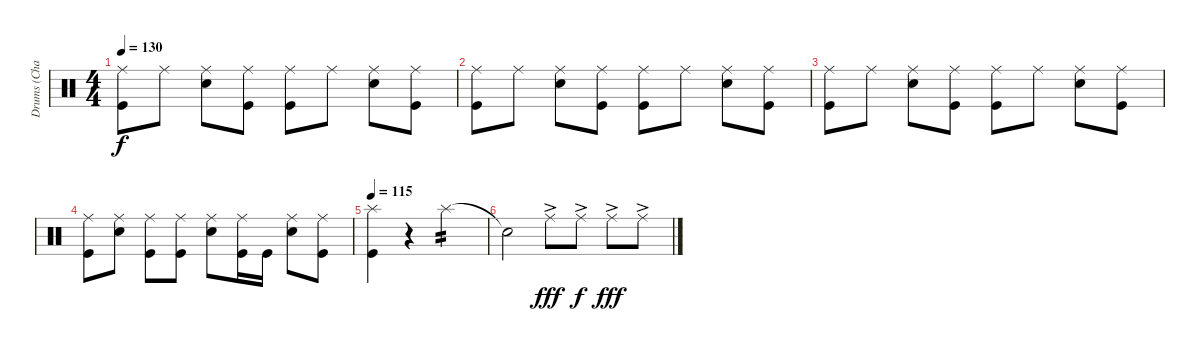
\track ("Drums (Chad Channing)" "Drums (Cha") {instrument percussion}
\staff {score}
\articulation defaults
\ts (4 4)
\tempo 130
\clef neutral
\ks c
("Ride (middle)" "Kick (hit)").8{dy f} "Ride (middle)".8 ("Ride (middle)" "Snare (hit) 2").8 ("Ride (middle)" "Kick (hit)").8 ("Ride (middle)" "Kick (hit)").8 "Ride (middle)".8 ("Ride (middle)" "Snare (hit) 2").8 ("Ride (middle)" "Kick (hit)").8 |
("Ride (middle)" "Kick (hit)").8 "Ride (middle)".8 ("Ride (middle)" "Snare (hit) 2").8 ("Ride (middle)" "Kick (hit)").8 ("Ride (middle)" "Kick (hit)").8 "Ride (middle)".8 ("Ride (middle)" "Snare (hit) 2").8 ("Ride (middle)" "Kick (hit)").8 |
("Ride (middle)" "Kick (hit)").8 "Ride (middle)".8 ("Ride (middle)" "Snare (hit) 2").8 ("Ride (middle)" "Kick (hit)").8 ("Ride (middle)" "Kick (hit)").8 "Ride (middle)".8 ("Ride (middle)" "Snare (hit) 2").8 ("Ride (middle)" "Kick (hit)").8 |
("Ride (middle)" "Kick (hit)").8 ("Ride (middle)" "Snare (hit) 2").8 ("Ride (middle)" "Kick (hit)").8 ("Ride (middle)" "Kick (hit)").8 ("Ride (middle)" "Snare (hit) 2").8 ("Ride (middle)" "Kick (hit)").16 "Kick (hit)".16 ("Ride (middle)" "Snare (hit) 2").8 ("Ride (middle)" "Kick (hit)").8 |
\tempo 115
("Splash (hit)" "Kick (hit)").4 r.4 "Splash (hit)".2{tp 2} |
"Snare (hit)"{t}.2 "Ride (middle)"{ac}.8{dy fff} "Ride (middle)"{ac}.8{dy f} "Ride (middle)"{ac}.8{dy fff} "Ride (middle)"{ac}.8
